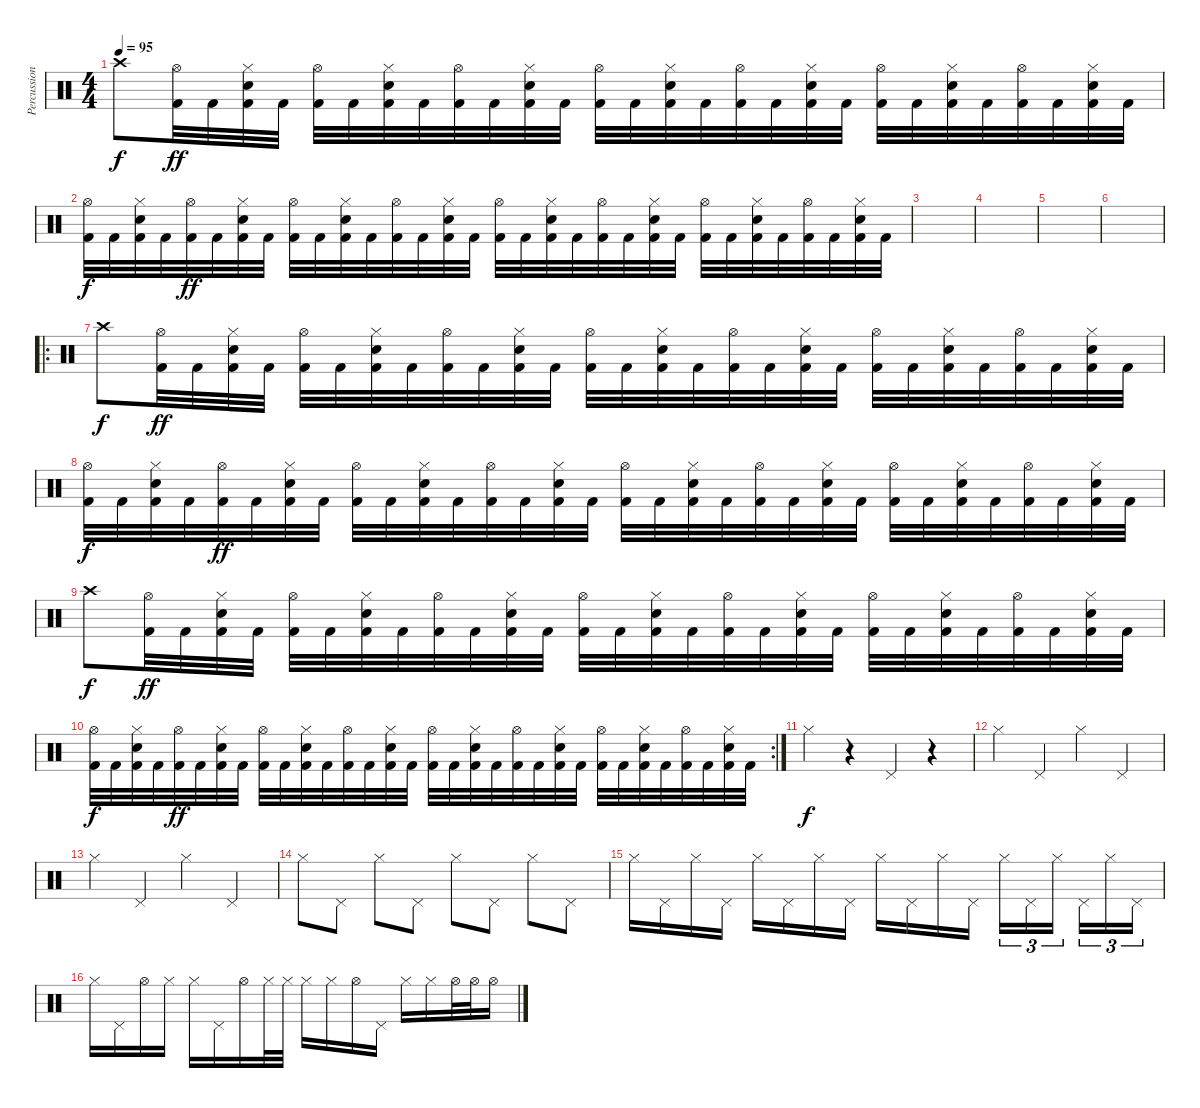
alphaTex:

\track ("Percussion" "Percussion") {instrument percussion}
\staff {score}
\articulation defaults
\ts (4 4)
\tempo 95
\clef neutral
\ks c "Crash high (hit)".8{dy f}
("Hi-Hat (open)" "Kick (hit) 2").32{dy ff} "Kick (hit) 2".32 ("Hi-Hat (closed)" "Electric Snare (hit)" "Kick (hit) 2").32 "Kick (hit) 2".32 ("Hi-Hat (open)" "Kick (hit) 2").32 "Kick (hit) 2".32 ("Hi-Hat (closed)" "Electric Snare (hit)" "Kick (hit) 2").32 "Kick (hit) 2".32 ("Hi-Hat (open)" "Kick (hit) 2").32 "Kick (hit) 2".32 ("Hi-Hat (closed)" "Electric Snare (hit)" "Kick (hit) 2").32 "Kick (hit) 2".32 ("Hi-Hat (open)" "Kick (hit) 2").32 "Kick (hit) 2".32 ("Hi-Hat (closed)" "Electric Snare (hit)" "Kick (hit) 2").32 "Kick (hit) 2".32 ("Hi-Hat (open)" "Kick (hit) 2").32 "Kick (hit) 2".32 ("Hi-Hat (closed)" "Electric Snare (hit)" "Kick (hit) 2").32 "Kick (hit) 2".32 ("Hi-Hat (open)" "Kick (hit) 2").32 "Kick (hit) 2".32 ("Hi-Hat (closed)" "Electric Snare (hit)" "Kick (hit) 2").32 "Kick (hit) 2".32 ("Hi-Hat (open)" "Kick (hit) 2").32 "Kick (hit) 2".32 ("Hi-Hat (closed)" "Electric Snare (hit)" "Kick (hit) 2").32 "Kick (hit) 2".32 |
("Hi-Hat (open)" "Kick (hit) 2").32{dy f} "Kick (hit) 2".32 ("Hi-Hat (closed)" "Electric Snare (hit)" "Kick (hit) 2").32 "Kick (hit) 2".32 ("Hi-Hat (open)" "Kick (hit) 2").32{dy ff} "Kick (hit) 2".32 ("Hi-Hat (closed)" "Electric Snare (hit)" "Kick (hit) 2").32 "Kick (hit) 2".32 ("Hi-Hat (open)" "Kick (hit) 2").32 "Kick (hit) 2".32 ("Hi-Hat (closed)" "Electric Snare (hit)" "Kick (hit) 2").32 "Kick (hit) 2".32 ("Hi-Hat (open)" "Kick (hit) 2").32 "Kick (hit) 2".32 ("Hi-Hat (closed)" "Electric Snare (hit)" "Kick (hit) 2").32 "Kick (hit) 2".32 ("Hi-Hat (open)" "Kick (hit) 2").32 "Kick (hit) 2".32 ("Hi-Hat (closed)" "Electric Snare (hit)" "Kick (hit) 2").32 "Kick (hit) 2".32 ("Hi-Hat (open)" "Kick (hit) 2").32 "Kick (hit) 2".32 ("Hi-Hat (closed)" "Electric Snare (hit)" "Kick (hit) 2").32 "Kick (hit) 2".32 ("Hi-Hat (open)" "Kick (hit) 2").32 "Kick (hit) 2".32 ("Hi-Hat (closed)" "Electric Snare (hit)" "Kick (hit) 2").32 "Kick (hit) 2".32 ("Hi-Hat (open)" "Kick (hit) 2").32 "Kick (hit) 2".32 ("Hi-Hat (closed)" "Electric Snare (hit)" "Kick (hit) 2").32 "Kick (hit) 2".32 |
|
|
|
|
\ro "Crash high (hit)".8{dy f}
("Hi-Hat (open)" "Kick (hit) 2").32{dy ff} "Kick (hit) 2".32 ("Hi-Hat (closed)" "Electric Snare (hit)" "Kick (hit) 2").32 "Kick (hit) 2".32 ("Hi-Hat (open)" "Kick (hit) 2").32 "Kick (hit) 2".32 ("Hi-Hat (closed)" "Electric Snare (hit)" "Kick (hit) 2").32 "Kick (hit) 2".32 ("Hi-Hat (open)" "Kick (hit) 2").32 "Kick (hit) 2".32 ("Hi-Hat (closed)" "Electric Snare (hit)" "Kick (hit) 2").32 "Kick (hit) 2".32 ("Hi-Hat (open)" "Kick (hit) 2").32 "Kick (hit) 2".32 ("Hi-Hat (closed)" "Electric Snare (hit)" "Kick (hit) 2").32 "Kick (hit) 2".32 ("Hi-Hat (open)" "Kick (hit) 2").32 "Kick (hit) 2".32 ("Hi-Hat (closed)" "Electric Snare (hit)" "Kick (hit) 2").32 "Kick (hit) 2".32 ("Hi-Hat (open)" "Kick (hit) 2").32 "Kick (hit) 2".32 ("Hi-Hat (closed)" "Electric Snare (hit)" "Kick (hit) 2").32 "Kick (hit) 2".32 ("Hi-Hat (open)" "Kick (hit) 2").32 "Kick (hit) 2".32 ("Hi-Hat (closed)" "Electric Snare (hit)" "Kick (hit) 2").32 "Kick (hit) 2".32 |
("Hi-Hat (open)" "Kick (hit) 2").32{dy f} "Kick (hit) 2".32 ("Hi-Hat (closed)" "Electric Snare (hit)" "Kick (hit) 2").32 "Kick (hit) 2".32 ("Hi-Hat (open)" "Kick (hit) 2").32{dy ff} "Kick (hit) 2".32 ("Hi-Hat (closed)" "Electric Snare (hit)" "Kick (hit) 2").32 "Kick (hit) 2".32 ("Hi-Hat (open)" "Kick (hit) 2").32 "Kick (hit) 2".32 ("Hi-Hat (closed)" "Electric Snare (hit)" "Kick (hit) 2").32 "Kick (hit) 2".32 ("Hi-Hat (open)" "Kick (hit) 2").32 "Kick (hit) 2".32 ("Hi-Hat (closed)" "Electric Snare (hit)" "Kick (hit) 2").32 "Kick (hit) 2".32 ("Hi-Hat (open)" "Kick (hit) 2").32 "Kick (hit) 2".32 ("Hi-Hat (closed)" "Electric Snare (hit)" "Kick (hit) 2").32 "Kick (hit) 2".32 ("Hi-Hat (open)" "Kick (hit) 2").32 "Kick (hit) 2".32 ("Hi-Hat (closed)" "Electric Snare (hit)" "Kick (hit) 2").32 "Kick (hit) 2".32 ("Hi-Hat (open)" "Kick (hit) 2").32 "Kick (hit) 2".32 ("Hi-Hat (closed)" "Electric Snare (hit)" "Kick (hit) 2").32 "Kick (hit) 2".32 ("Hi-Hat (open)" "Kick (hit) 2").32 "Kick (hit) 2".32 ("Hi-Hat (closed)" "Electric Snare (hit)" "Kick (hit) 2").32 "Kick (hit) 2".32 |
"Crash high (hit)".8{dy f} ("Hi-Hat (open)" "Kick (hit) 2").32{dy ff} "Kick (hit) 2".32 ("Hi-Hat (closed)" "Electric Snare (hit)" "Kick (hit) 2").32 "Kick (hit) 2".32 ("Hi-Hat (open)" "Kick (hit) 2").32 "Kick (hit) 2".32 ("Hi-Hat (closed)" "Electric Snare (hit)" "Kick (hit) 2").32 "Kick (hit) 2".32 ("Hi-Hat (open)" "Kick (hit) 2").32 "Kick (hit) 2".32 ("Hi-Hat (closed)" "Electric Snare (hit)" "Kick (hit) 2").32 "Kick (hit) 2".32 ("Hi-Hat (open)" "Kick (hit) 2").32 "Kick (hit) 2".32 ("Hi-Hat (closed)" "Electric Snare (hit)" "Kick (hit) 2").32 "Kick (hit) 2".32 ("Hi-Hat (open)" "Kick (hit) 2").32 "Kick (hit) 2".32 ("Hi-Hat (closed)" "Electric Snare (hit)" "Kick (hit) 2").32 "Kick (hit) 2".32 ("Hi-Hat (open)" "Kick (hit) 2").32 "Kick (hit) 2".32 ("Hi-Hat (closed)" "Electric Snare (hit)" "Kick (hit) 2").32 "Kick (hit) 2".32 ("Hi-Hat (open)" "Kick (hit) 2").32 "Kick (hit) 2".32 ("Hi-Hat (closed)" "Electric Snare (hit)" "Kick (hit) 2").32 "Kick (hit) 2".32 |
\rc 2
("Hi-Hat (open)" "Kick (hit) 2").32{dy f} "Kick (hit) 2".32 ("Hi-Hat (closed)" "Electric Snare (hit)" "Kick (hit) 2").32 "Kick (hit) 2".32 ("Hi-Hat (open)" "Kick (hit) 2").32{dy ff} "Kick (hit) 2".32 ("Hi-Hat (closed)" "Electric Snare (hit)" "Kick (hit) 2").32 "Kick (hit) 2".32 ("Hi-Hat (open)" "Kick (hit) 2").32 "Kick (hit) 2".32 ("Hi-Hat (closed)" "Electric Snare (hit)" "Kick (hit) 2").32 "Kick (hit) 2".32 ("Hi-Hat (open)" "Kick (hit) 2").32 "Kick (hit) 2".32 ("Hi-Hat (closed)" "Electric Snare (hit)" "Kick (hit) 2").32 "Kick (hit) 2".32 ("Hi-Hat (open)" "Kick (hit) 2").32 "Kick (hit) 2".32 ("Hi-Hat (closed)" "Electric Snare (hit)" "Kick (hit) 2").32 "Kick (hit) 2".32 ("Hi-Hat (open)" "Kick (hit) 2").32 "Kick (hit) 2".32 ("Hi-Hat (closed)" "Electric Snare (hit)" "Kick (hit) 2").32 "Kick (hit) 2".32 ("Hi-Hat (open)" "Kick (hit) 2").32 "Kick (hit) 2".32 ("Hi-Hat (closed)" "Electric Snare (hit)" "Kick (hit) 2").32 "Kick (hit) 2".32 ("Hi-Hat (open)" "Kick (hit) 2").32 "Kick (hit) 2".32 ("Hi-Hat (closed)" "Electric Snare (hit)" "Kick (hit) 2").32 "Kick (hit) 2".32 |
"Hi-Hat (closed)".4{dy f} r.4 "Pedal Hi-Hat (hit)".4 r.4 |
"Hi-Hat (closed)".4 "Pedal Hi-Hat (hit)".4 "Hi-Hat (closed)".4 "Pedal Hi-Hat (hit)".4 |
"Hi-Hat (closed)".4 "Pedal Hi-Hat (hit)".4 "Hi-Hat (closed)".4 "Pedal Hi-Hat (hit)".4 |
"Hi-Hat (closed)".8 "Pedal Hi-Hat (hit)".8 "Hi-Hat (closed)".8 "Pedal Hi-Hat (hit)".8 "Hi-Hat (closed)".8 "Pedal Hi-Hat (hit)".8 "Hi-Hat (closed)".8 "Pedal Hi-Hat (hit)".8 |
"Hi-Hat (closed)".16 "Pedal Hi-Hat (hit)".16 "Hi-Hat (closed)".16 "Pedal Hi-Hat (hit)".16 "Hi-Hat (closed)".16 "Pedal Hi-Hat (hit)".16 "Hi-Hat (closed)".16 "Pedal Hi-Hat (hit)".16 "Hi-Hat (closed)".16 "Pedal Hi-Hat (hit)".16 "Hi-Hat (closed)".16 "Pedal Hi-Hat (hit)".16 "Hi-Hat (closed)".16{tu (3 2)} "Pedal Hi-Hat (hit)".16{tu (3 2)} "Hi-Hat (closed)".16{tu (3 2)} "Pedal Hi-Hat (hit)".16{tu (3 2)} "Hi-Hat (closed)".16{tu (3 2)} "Pedal Hi-Hat (hit)".16{tu (3 2)} |
"Hi-Hat (closed)".16{volume 14} "Pedal Hi-Hat (hit)".16 "Hi-Hat (open)".16 "Hi-Hat (closed)".16 "Hi-Hat (closed)".16 "Pedal Hi-Hat (hit)".16{volume 12} "Hi-Hat (open)".16 "Hi-Hat (closed)".32 "Hi-Hat (closed)".32 "Hi-Hat (closed)".16 "Hi-Hat (closed)".16{volume 10} "Hi-Hat (open)".16 "Pedal Hi-Hat (hit)".16 "Hi-Hat (closed)".16 "Hi-Hat (closed)".16 "Hi-Hat (open)".32{volume 8} "Hi-Hat (open)".32 "Hi-Hat (open)".16
